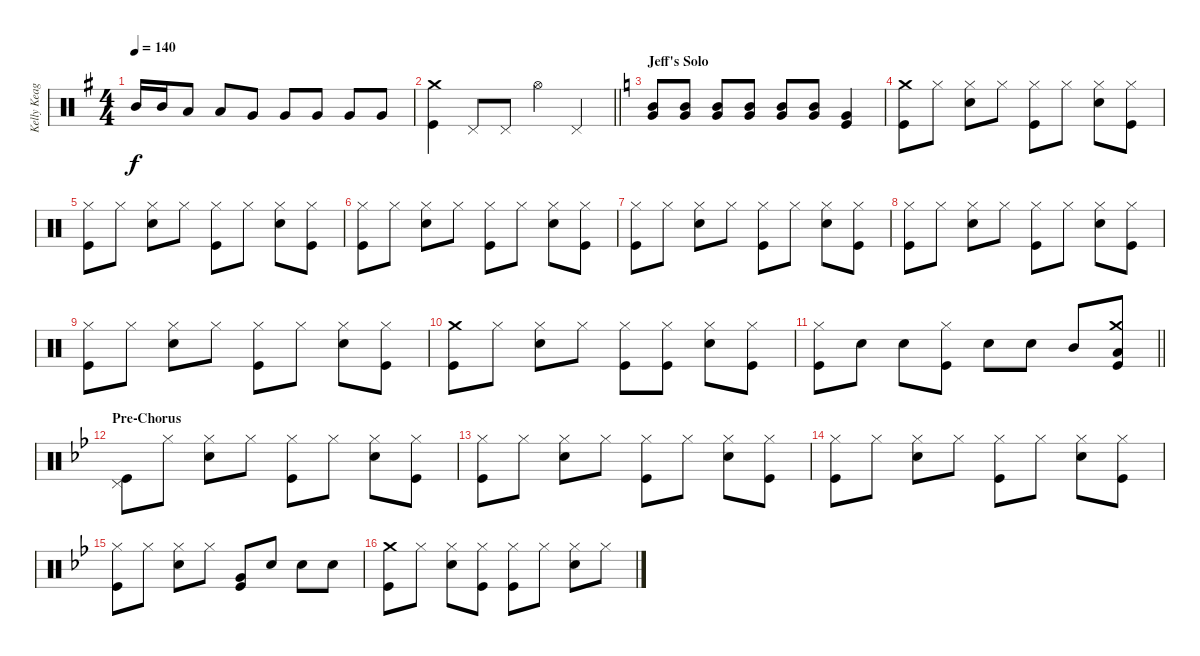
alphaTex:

\track ("Kelly Keagy" "Kelly Keag") {instrument percussion}
\staff {score}
\articulation defaults
\ts (4 4)
\tempo 140
\clef neutral
\ks g "Mid Tom (hit)".16{dy f} "Mid Tom (hit)".16 "Low Tom (hit)".8 "Low Tom (hit)".8 "Very Low Tom (hit)".8 "Very Low Tom (hit)".8 "Very Low Tom (hit)".8 "Very Low Tom (hit)".8 "Very Low Tom (hit)".8
|
\barLineRight lightlight
("Crash medium (hit)" "Kick (hit)").4 "Pedal Hi-Hat (hit)".8 "Pedal Hi-Hat (hit)".8 "Hi-Hat (open)".4 "Pedal Hi-Hat (hit)".4 |
\section ("" "Jeff's Solo")
\ks c
("Mid Tom (hit)" "Very Low Tom (hit)").8{volume 0} ("Mid Tom (hit)" "Very Low Tom (hit)").8{volume 16} ("Mid Tom (hit)" "Very Low Tom (hit)").8 ("Mid Tom (hit)" "Very Low Tom (hit)").8 ("Mid Tom (hit)" "Very Low Tom (hit)").8 ("Mid Tom (hit)" "Very Low Tom (hit)").8 ("Very Low Tom (hit)" "Kick (hit)").4 |
("Crash medium (hit)" "Kick (hit)").8 "Hi-Hat (closed)".8 ("Hi-Hat (closed)" "Snare (hit) 2").8 "Hi-Hat (closed)".8 ("Hi-Hat (closed)" "Kick (hit)").8 "Hi-Hat (closed)".8 ("Hi-Hat (closed)" "Snare (hit) 2").8 ("Hi-Hat (closed)" "Kick (hit)").8 |
("Hi-Hat (closed)" "Kick (hit)").8 "Hi-Hat (closed)".8 ("Hi-Hat (closed)" "Snare (hit) 2").8 "Hi-Hat (closed)".8 ("Hi-Hat (closed)" "Kick (hit)").8 "Hi-Hat (closed)".8 ("Hi-Hat (closed)" "Snare (hit) 2").8 ("Hi-Hat (closed)" "Kick (hit)").8 |
("Hi-Hat (closed)" "Kick (hit)").8 "Hi-Hat (closed)".8 ("Hi-Hat (closed)" "Snare (hit) 2").8 "Hi-Hat (closed)".8 ("Hi-Hat (closed)" "Kick (hit)").8 "Hi-Hat (closed)".8 ("Hi-Hat (closed)" "Snare (hit) 2").8 ("Hi-Hat (closed)" "Kick (hit)").8 |
("Hi-Hat (closed)" "Kick (hit)").8 "Hi-Hat (closed)".8 ("Hi-Hat (closed)" "Snare (hit) 2").8 "Hi-Hat (closed)".8 ("Hi-Hat (closed)" "Kick (hit)").8 "Hi-Hat (closed)".8 ("Hi-Hat (closed)" "Snare (hit) 2").8 ("Hi-Hat (closed)" "Kick (hit)").8 |
("Hi-Hat (closed)" "Kick (hit)").8 "Hi-Hat (closed)".8 ("Hi-Hat (closed)" "Snare (hit) 2").8 "Hi-Hat (closed)".8 ("Hi-Hat (closed)" "Kick (hit)").8 "Hi-Hat (closed)".8 ("Hi-Hat (closed)" "Snare (hit) 2").8 ("Hi-Hat (closed)" "Kick (hit)").8 |
("Hi-Hat (closed)" "Kick (hit)").8 "Hi-Hat (closed)".8 ("Hi-Hat (closed)" "Snare (hit) 2").8 "Hi-Hat (closed)".8 ("Hi-Hat (closed)" "Kick (hit)").8 "Hi-Hat (closed)".8 ("Hi-Hat (closed)" "Snare (hit) 2").8 ("Hi-Hat (closed)" "Kick (hit)").8 |
("Crash medium (hit)" "Kick (hit)").8 "Hi-Hat (closed)".8 ("Hi-Hat (closed)" "Snare (hit) 2").8 "Hi-Hat (closed)".8 ("Hi-Hat (closed)" "Kick (hit)").8 ("Hi-Hat (closed)" "Kick (hit)").8 ("Hi-Hat (closed)" "Snare (hit) 2").8 ("Hi-Hat (closed)" "Kick (hit)").8 |
\barLineRight lightlight
("Hi-Hat (closed)" "Kick (hit)").8 "Snare (hit) 2".8 "Snare (hit) 2".8 ("Hi-Hat (closed)" "Kick (hit)").8 "Snare (hit) 2".8 "Snare (hit) 2".8 "Mid Tom (hit)".8 ("Crash medium (hit)" "Low Tom (hit)" "Kick (hit)").8 |
\section ("" "Pre-Chorus")
\ks bb
("Pedal Hi-Hat (hit)" "Kick (hit)").8 "Hi-Hat (closed)".8 ("Hi-Hat (closed)" "Snare (hit) 2").8 "Hi-Hat (closed)".8 ("Hi-Hat (closed)" "Kick (hit)").8 "Hi-Hat (closed)".8 ("Hi-Hat (closed)" "Snare (hit) 2").8 ("Hi-Hat (closed)" "Kick (hit)").8 |
("Hi-Hat (closed)" "Kick (hit)").8 "Hi-Hat (closed)".8 ("Hi-Hat (closed)" "Snare (hit) 2").8 "Hi-Hat (closed)".8 ("Hi-Hat (closed)" "Kick (hit)").8 "Hi-Hat (closed)".8 ("Hi-Hat (closed)" "Snare (hit) 2").8 ("Hi-Hat (closed)" "Kick (hit)").8 |
("Hi-Hat (closed)" "Kick (hit)").8 "Hi-Hat (closed)".8 ("Hi-Hat (closed)" "Snare (hit) 2").8 "Hi-Hat (closed)".8 ("Hi-Hat (closed)" "Kick (hit)").8 "Hi-Hat (closed)".8 ("Hi-Hat (closed)" "Snare (hit) 2").8 ("Hi-Hat (closed)" "Kick (hit)").8 |
("Hi-Hat (closed)" "Kick (hit)").8 "Hi-Hat (closed)".8 ("Hi-Hat (closed)" "Snare (hit) 2").8 "Hi-Hat (closed)".8 ("Very Low Tom (hit)" "Kick (hit)").8 "Snare (hit) 2".8 "Snare (hit) 2".8 "Snare (hit) 2".8 |
("Crash medium (hit)" "Kick (hit)").8 "Hi-Hat (closed)".8 ("Hi-Hat (closed)" "Snare (hit) 2").8 ("Hi-Hat (closed)" "Kick (hit)").8 ("Hi-Hat (closed)" "Kick (hit)").8 "Hi-Hat (closed)".8 ("Hi-Hat (closed)" "Snare (hit) 2").8 "Hi-Hat (closed)".8
